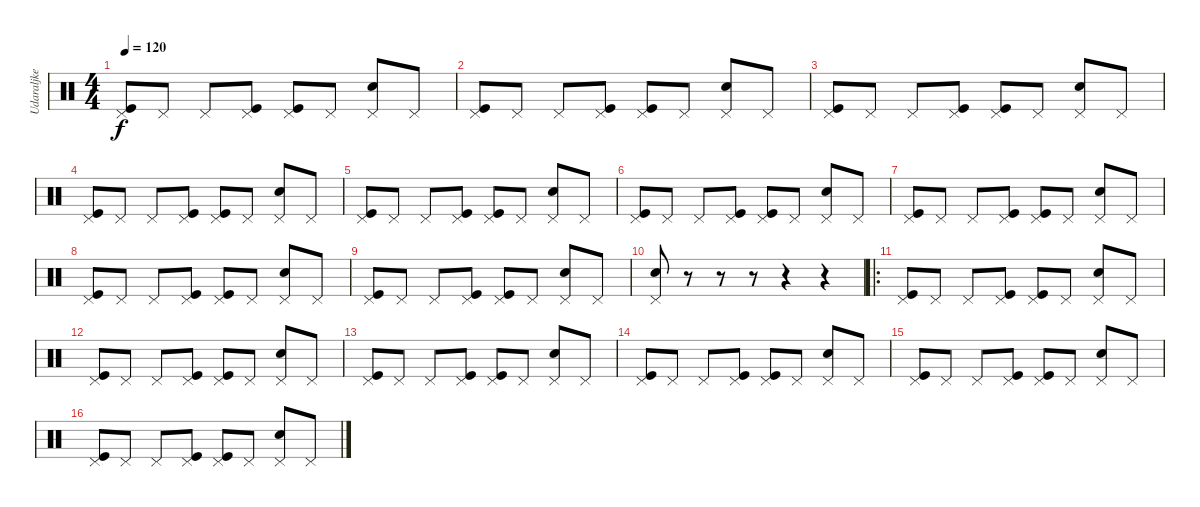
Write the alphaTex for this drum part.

\track ("Udaraljke" "Udaraljke") {instrument percussion}
\staff {score}
\articulation defaults
\ts (4 4)
\tempo 120
\clef neutral
\ks c
("Pedal Hi-Hat (hit)" "Kick (hit)").8{dy f} "Pedal Hi-Hat (hit)".8 "Pedal Hi-Hat (hit)".8 ("Pedal Hi-Hat (hit)" "Kick (hit)").8 ("Pedal Hi-Hat (hit)" "Kick (hit)").8 "Pedal Hi-Hat (hit)".8 ("Pedal Hi-Hat (hit)" "Snare (hit) 2").8 "Pedal Hi-Hat (hit)".8 |
("Pedal Hi-Hat (hit)" "Kick (hit)").8 "Pedal Hi-Hat (hit)".8 "Pedal Hi-Hat (hit)".8 ("Pedal Hi-Hat (hit)" "Kick (hit)").8 ("Pedal Hi-Hat (hit)" "Kick (hit)").8 "Pedal Hi-Hat (hit)".8 ("Pedal Hi-Hat (hit)" "Snare (hit) 2").8 "Pedal Hi-Hat (hit)".8 |
("Pedal Hi-Hat (hit)" "Kick (hit)").8 "Pedal Hi-Hat (hit)".8 "Pedal Hi-Hat (hit)".8 ("Pedal Hi-Hat (hit)" "Kick (hit)").8 ("Pedal Hi-Hat (hit)" "Kick (hit)").8 "Pedal Hi-Hat (hit)".8 ("Pedal Hi-Hat (hit)" "Snare (hit) 2").8 "Pedal Hi-Hat (hit)".8 |
("Pedal Hi-Hat (hit)" "Kick (hit)").8 "Pedal Hi-Hat (hit)".8 "Pedal Hi-Hat (hit)".8 ("Pedal Hi-Hat (hit)" "Kick (hit)").8 ("Pedal Hi-Hat (hit)" "Kick (hit)").8 "Pedal Hi-Hat (hit)".8 ("Pedal Hi-Hat (hit)" "Snare (hit) 2").8 "Pedal Hi-Hat (hit)".8 |
("Pedal Hi-Hat (hit)" "Kick (hit)").8 "Pedal Hi-Hat (hit)".8 "Pedal Hi-Hat (hit)".8 ("Pedal Hi-Hat (hit)" "Kick (hit)").8 ("Pedal Hi-Hat (hit)" "Kick (hit)").8 "Pedal Hi-Hat (hit)".8 ("Pedal Hi-Hat (hit)" "Snare (hit) 2").8 "Pedal Hi-Hat (hit)".8 |
("Pedal Hi-Hat (hit)" "Kick (hit)").8 "Pedal Hi-Hat (hit)".8 "Pedal Hi-Hat (hit)".8 ("Pedal Hi-Hat (hit)" "Kick (hit)").8 ("Pedal Hi-Hat (hit)" "Kick (hit)").8 "Pedal Hi-Hat (hit)".8 ("Pedal Hi-Hat (hit)" "Snare (hit) 2").8 "Pedal Hi-Hat (hit)".8 |
("Pedal Hi-Hat (hit)" "Kick (hit)").8 "Pedal Hi-Hat (hit)".8 "Pedal Hi-Hat (hit)".8 ("Pedal Hi-Hat (hit)" "Kick (hit)").8 ("Pedal Hi-Hat (hit)" "Kick (hit)").8 "Pedal Hi-Hat (hit)".8 ("Pedal Hi-Hat (hit)" "Snare (hit) 2").8 "Pedal Hi-Hat (hit)".8 |
("Pedal Hi-Hat (hit)" "Kick (hit)").8 "Pedal Hi-Hat (hit)".8 "Pedal Hi-Hat (hit)".8 ("Pedal Hi-Hat (hit)" "Kick (hit)").8 ("Pedal Hi-Hat (hit)" "Kick (hit)").8 "Pedal Hi-Hat (hit)".8 ("Pedal Hi-Hat (hit)" "Snare (hit) 2").8 "Pedal Hi-Hat (hit)".8 |
("Pedal Hi-Hat (hit)" "Kick (hit)").8 "Pedal Hi-Hat (hit)".8 "Pedal Hi-Hat (hit)".8 ("Pedal Hi-Hat (hit)" "Kick (hit)").8 ("Pedal Hi-Hat (hit)" "Kick (hit)").8 "Pedal Hi-Hat (hit)".8 ("Pedal Hi-Hat (hit)" "Snare (hit) 2").8 "Pedal Hi-Hat (hit)".8 |
("Pedal Hi-Hat (hit)" "Snare (hit) 2").8 r.8 r.8 r.8 r.4 r.4 |
\ro
("Pedal Hi-Hat (hit)" "Kick (hit)").8 "Pedal Hi-Hat (hit)".8 "Pedal Hi-Hat (hit)".8 ("Pedal Hi-Hat (hit)" "Kick (hit)").8 ("Pedal Hi-Hat (hit)" "Kick (hit)").8 "Pedal Hi-Hat (hit)".8 ("Pedal Hi-Hat (hit)" "Snare (hit) 2").8 "Pedal Hi-Hat (hit)".8 |
("Pedal Hi-Hat (hit)" "Kick (hit)").8 "Pedal Hi-Hat (hit)".8 "Pedal Hi-Hat (hit)".8 ("Pedal Hi-Hat (hit)" "Kick (hit)").8 ("Pedal Hi-Hat (hit)" "Kick (hit)").8 "Pedal Hi-Hat (hit)".8 ("Pedal Hi-Hat (hit)" "Snare (hit) 2").8 "Pedal Hi-Hat (hit)".8 |
("Pedal Hi-Hat (hit)" "Kick (hit)").8 "Pedal Hi-Hat (hit)".8 "Pedal Hi-Hat (hit)".8 ("Pedal Hi-Hat (hit)" "Kick (hit)").8 ("Pedal Hi-Hat (hit)" "Kick (hit)").8 "Pedal Hi-Hat (hit)".8 ("Pedal Hi-Hat (hit)" "Snare (hit) 2").8 "Pedal Hi-Hat (hit)".8 |
("Pedal Hi-Hat (hit)" "Kick (hit)").8 "Pedal Hi-Hat (hit)".8 "Pedal Hi-Hat (hit)".8 ("Pedal Hi-Hat (hit)" "Kick (hit)").8 ("Pedal Hi-Hat (hit)" "Kick (hit)").8 "Pedal Hi-Hat (hit)".8 ("Pedal Hi-Hat (hit)" "Snare (hit) 2").8 "Pedal Hi-Hat (hit)".8 |
("Pedal Hi-Hat (hit)" "Kick (hit)").8 "Pedal Hi-Hat (hit)".8 "Pedal Hi-Hat (hit)".8 ("Pedal Hi-Hat (hit)" "Kick (hit)").8 ("Pedal Hi-Hat (hit)" "Kick (hit)").8 "Pedal Hi-Hat (hit)".8 ("Pedal Hi-Hat (hit)" "Snare (hit) 2").8 "Pedal Hi-Hat (hit)".8 |
("Pedal Hi-Hat (hit)" "Kick (hit)").8 "Pedal Hi-Hat (hit)".8 "Pedal Hi-Hat (hit)".8 ("Pedal Hi-Hat (hit)" "Kick (hit)").8 ("Pedal Hi-Hat (hit)" "Kick (hit)").8 "Pedal Hi-Hat (hit)".8 ("Pedal Hi-Hat (hit)" "Snare (hit) 2").8 "Pedal Hi-Hat (hit)".8
